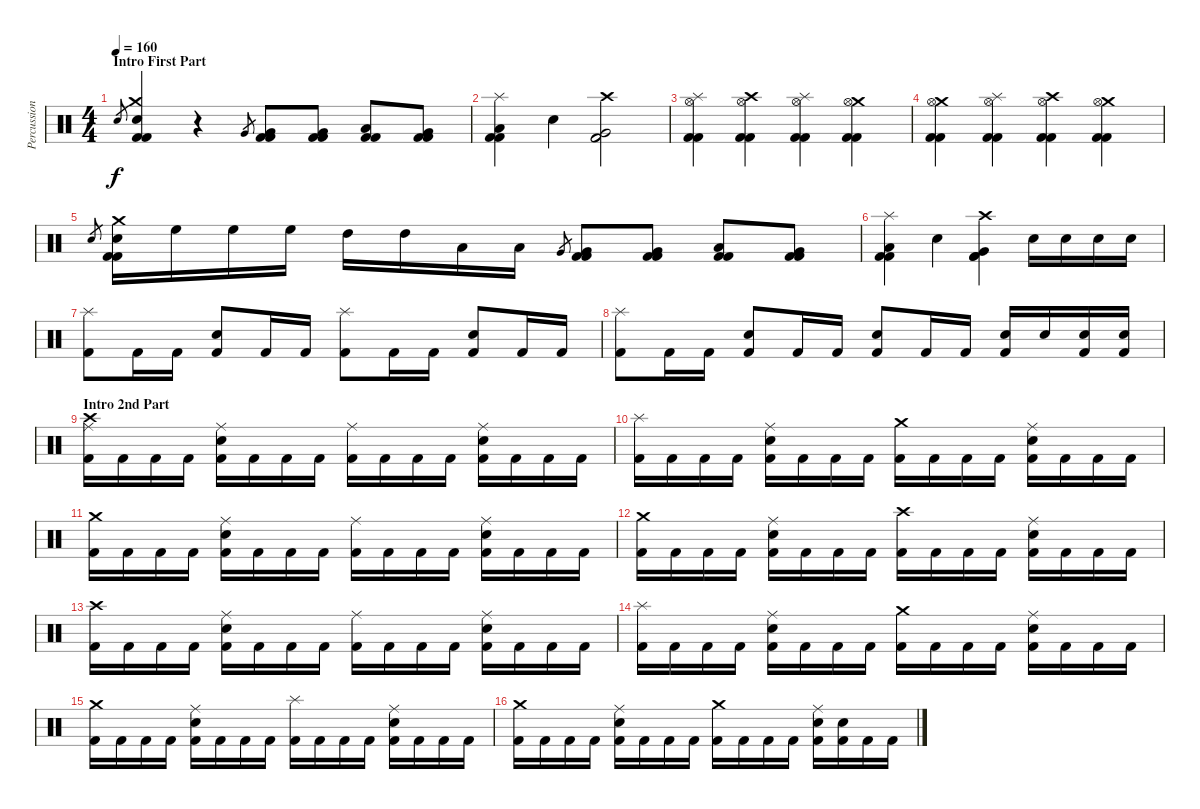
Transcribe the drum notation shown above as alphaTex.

\track ("Percussions" "Percussion") {instrument percussion}
\staff {score}
\articulation defaults
\ts (4 4)
\section ("" "Intro First Part")
\tempo 160
\clef neutral
\ks c "Electric Snare (hit)".8{gr dy f}
("Crash medium (hit)" "Electric Snare (hit)" "Kick (hit) 2" "Kick (hit) 2").4 r.4 "Very Low Tom (hit)".8{gr} ("Very Low Tom (hit)" "Kick (hit) 2" "Kick (hit) 2").8 ("Very Low Tom (hit)" "Kick (hit) 2" "Kick (hit) 2").8 ("Low Floor Tom (hit)" "Kick (hit) 2" "Kick (hit) 2").8 ("Very Low Tom (hit)" "Kick (hit) 2" "Kick (hit) 2").8 |
("Splash (hit)" "Low Floor Tom (hit)" "Kick (hit) 2" "Kick (hit) 2").4 "Electric Snare (hit)".4 ("Crash high (hit)" "Very Low Tom (hit)" "Kick (hit) 2" "Kick (hit) 2").2 |
("Splash (hit)" "Hi-Hat (open)" "Kick (hit) 2" "Kick (hit) 2").4 ("Crash high (hit)" "Hi-Hat (open)" "Kick (hit) 2" "Kick (hit) 2").4 ("Splash (hit)" "Hi-Hat (open)" "Kick (hit) 2" "Kick (hit) 2").4 ("Crash medium (hit)" "Hi-Hat (open)" "Kick (hit) 2" "Kick (hit) 2").4 |
("Crash medium (hit)" "Hi-Hat (open)" "Kick (hit) 2" "Kick (hit) 2").4 ("Splash (hit)" "Hi-Hat (open)" "Kick (hit) 2" "Kick (hit) 2").4 ("Crash high (hit)" "Hi-Hat (open)" "Kick (hit) 2" "Kick (hit) 2").4 ("Crash medium (hit)" "Hi-Hat (open)" "Kick (hit) 2" "Kick (hit) 2").4 |
"Electric Snare (hit)".8{gr} ("Crash medium (hit)" "Electric Snare (hit)" "Kick (hit) 2" "Kick (hit) 2").16 "High Floor Tom (hit)".16 "High Floor Tom (hit)".16 "High Floor Tom (hit)".16 "High Tom (hit)".16 "High Tom (hit)".16 "Low Tom (hit)".16 "Low Tom (hit)".16 "Very Low Tom (hit)".8{gr} ("Very Low Tom (hit)" "Kick (hit) 2" "Kick (hit) 2").8 ("Very Low Tom (hit)" "Kick (hit) 2" "Kick (hit) 2").8 ("Low Floor Tom (hit)" "Kick (hit) 2" "Kick (hit) 2").8 ("Very Low Tom (hit)" "Kick (hit) 2" "Kick (hit) 2").8 |
("Splash (hit)" "Low Floor Tom (hit)" "Kick (hit) 2" "Kick (hit) 2").4 "Electric Snare (hit)".4 ("Crash high (hit)" "Very Low Tom (hit)" "Kick (hit) 2" "Kick (hit) 2").4 "Electric Snare (hit)".16 "Electric Snare (hit)".16 "Electric Snare (hit)".16 "Electric Snare (hit)".16 |
("Splash (hit)" "Kick (hit) 2").8 "Kick (hit) 2".16 "Kick (hit) 2".16 ("Electric Snare (hit)" "Kick (hit) 2").8 "Kick (hit) 2".16 "Kick (hit) 2".16 ("Splash (hit)" "Kick (hit) 2").8 "Kick (hit) 2".16 "Kick (hit) 2".16 ("Electric Snare (hit)" "Kick (hit) 2").8 "Kick (hit) 2".16 "Kick (hit) 2".16 |
("Splash (hit)" "Kick (hit) 2").8 "Kick (hit) 2".16 "Kick (hit) 2".16 ("Electric Snare (hit)" "Kick (hit) 2").8 "Kick (hit) 2".16 "Kick (hit) 2".16 ("Electric Snare (hit)" "Kick (hit) 2").8 "Kick (hit) 2".16 "Kick (hit) 2".16 ("Electric Snare (hit)" "Kick (hit) 2").16 "Electric Snare (hit)".16 ("Electric Snare (hit)" "Kick (hit) 2").16 ("Electric Snare (hit)" "Kick (hit) 2").16 |
\section ("" "Intro 2nd Part")
("Crash high (hit)" "Ride (middle)" "Kick (hit) 2").16 "Kick (hit) 2".16 "Kick (hit) 2".16 "Kick (hit) 2".16 ("Electric Snare (hit)" "Ride (middle)" "Kick (hit) 2").16 "Kick (hit) 2".16 "Kick (hit) 2".16 "Kick (hit) 2".16 ("Ride (middle)" "Kick (hit) 2").16 "Kick (hit) 2".16 "Kick (hit) 2".16 "Kick (hit) 2".16 ("Electric Snare (hit)" "Ride (middle)" "Kick (hit) 2").16 "Kick (hit) 2".16 "Kick (hit) 2".16 "Kick (hit) 2".16 |
("Splash (hit)" "Kick (hit) 2").16 "Kick (hit) 2".16 "Kick (hit) 2".16 "Kick (hit) 2".16 ("Electric Snare (hit)" "Ride (middle)" "Kick (hit) 2").16 "Kick (hit) 2".16 "Kick (hit) 2".16 "Kick (hit) 2".16 ("Crash medium (hit)" "Kick (hit) 2").16 "Kick (hit) 2".16 "Kick (hit) 2".16 "Kick (hit) 2".16 ("Electric Snare (hit)" "Ride (middle)" "Kick (hit) 2").16 "Kick (hit) 2".16 "Kick (hit) 2".16 "Kick (hit) 2".16 |
("Crash medium (hit)" "Kick (hit) 2").16 "Kick (hit) 2".16 "Kick (hit) 2".16 "Kick (hit) 2".16 ("Electric Snare (hit)" "Ride (middle)" "Kick (hit) 2").16 "Kick (hit) 2".16 "Kick (hit) 2".16 "Kick (hit) 2".16 ("Ride (middle)" "Kick (hit) 2").16 "Kick (hit) 2".16 "Kick (hit) 2".16 "Kick (hit) 2".16 ("Electric Snare (hit)" "Ride (middle)" "Kick (hit) 2").16 "Kick (hit) 2".16 "Kick (hit) 2".16 "Kick (hit) 2".16 |
("Crash medium (hit)" "Kick (hit) 2").16 "Kick (hit) 2".16 "Kick (hit) 2".16 "Kick (hit) 2".16 ("Electric Snare (hit)" "Ride (middle)" "Kick (hit) 2").16 "Kick (hit) 2".16 "Kick (hit) 2".16 "Kick (hit) 2".16 ("Crash high (hit)" "Kick (hit) 2").16 "Kick (hit) 2".16 "Kick (hit) 2".16 "Kick (hit) 2".16 ("Electric Snare (hit)" "Ride (middle)" "Kick (hit) 2").16 "Kick (hit) 2".16 "Kick (hit) 2".16 "Kick (hit) 2".16 |
("Crash high (hit)" "Kick (hit) 2").16 "Kick (hit) 2".16 "Kick (hit) 2".16 "Kick (hit) 2".16 ("Electric Snare (hit)" "Ride (middle)" "Kick (hit) 2").16 "Kick (hit) 2".16 "Kick (hit) 2".16 "Kick (hit) 2".16 ("Ride (middle)" "Kick (hit) 2").16 "Kick (hit) 2".16 "Kick (hit) 2".16 "Kick (hit) 2".16 ("Electric Snare (hit)" "Ride (middle)" "Kick (hit) 2").16 "Kick (hit) 2".16 "Kick (hit) 2".16 "Kick (hit) 2".16 |
("Splash (hit)" "Kick (hit) 2").16 "Kick (hit) 2".16 "Kick (hit) 2".16 "Kick (hit) 2".16 ("Electric Snare (hit)" "Ride (middle)" "Kick (hit) 2").16 "Kick (hit) 2".16 "Kick (hit) 2".16 "Kick (hit) 2".16 ("Crash medium (hit)" "Kick (hit) 2").16 "Kick (hit) 2".16 "Kick (hit) 2".16 "Kick (hit) 2".16 ("Electric Snare (hit)" "Ride (middle)" "Kick (hit) 2").16 "Kick (hit) 2".16 "Kick (hit) 2".16 "Kick (hit) 2".16 |
("Crash medium (hit)" "Kick (hit) 2").16 "Kick (hit) 2".16 "Kick (hit) 2".16 "Kick (hit) 2".16 ("Electric Snare (hit)" "Ride (middle)" "Kick (hit) 2").16 "Kick (hit) 2".16 "Kick (hit) 2".16 "Kick (hit) 2".16 ("Splash (hit)" "Kick (hit) 2").16 "Kick (hit) 2".16 "Kick (hit) 2".16 "Kick (hit) 2".16 ("Electric Snare (hit)" "Ride (middle)" "Kick (hit) 2").16 "Kick (hit) 2".16 "Kick (hit) 2".16 "Kick (hit) 2".16 |
("Crash medium (hit)" "Kick (hit) 2").16 "Kick (hit) 2".16 "Kick (hit) 2".16 "Kick (hit) 2".16 ("Electric Snare (hit)" "Ride (middle)" "Kick (hit) 2").16 "Kick (hit) 2".16 "Kick (hit) 2".16 "Kick (hit) 2".16 ("Crash medium (hit)" "Kick (hit) 2").16 "Kick (hit) 2".16 "Kick (hit) 2".16 "Kick (hit) 2".16 ("Electric Snare (hit)" "Ride (middle)" "Kick (hit) 2").16 ("Electric Snare (hit)" "Kick (hit) 2").16 "Kick (hit) 2".16 "Kick (hit) 2".16
